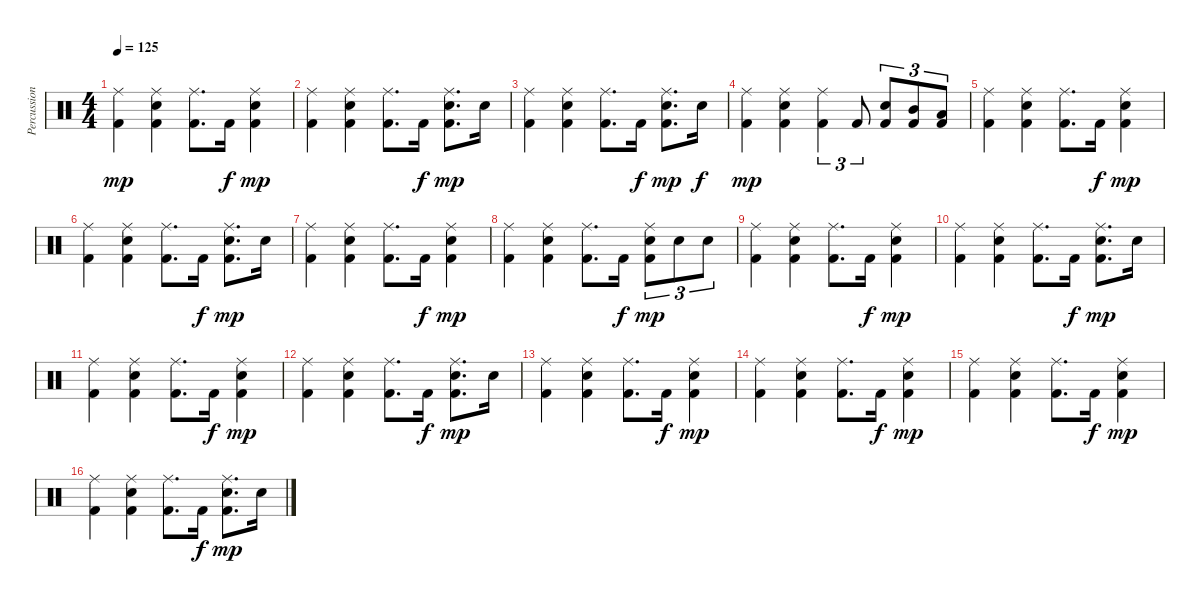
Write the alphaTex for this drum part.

\track ("Percussions" "Percussion") {instrument percussion}
\staff {score}
\articulation defaults
\ts (4 4)
\tempo 125
\clef neutral
\ks c
("Ride (middle)" "Kick (hit) 2").4{dy mp} ("Ride (middle)" "Electric Snare (hit)" "Kick (hit) 2").4 ("Ride (middle)" "Kick (hit) 2").8{d} "Kick (hit) 2".16{dy f} ("Ride (middle)" "Electric Snare (hit)" "Kick (hit) 2").4{dy mp} |
("Ride (middle)" "Kick (hit) 2").4 ("Ride (middle)" "Electric Snare (hit)" "Kick (hit) 2").4 ("Ride (middle)" "Kick (hit) 2").8{d} "Kick (hit) 2".16{dy f} ("Ride (middle)" "Electric Snare (hit)" "Kick (hit) 2").8{d dy mp} "Electric Snare (hit)".16 |
("Ride (middle)" "Kick (hit) 2").4 ("Ride (middle)" "Electric Snare (hit)" "Kick (hit) 2").4 ("Ride (middle)" "Kick (hit) 2").8{d} "Kick (hit) 2".16{dy f} ("Ride (middle)" "Electric Snare (hit)" "Kick (hit) 2").8{d dy mp} "Electric Snare (hit)".16{dy f} |
("Ride (middle)" "Kick (hit) 2").4{dy mp} ("Ride (middle)" "Electric Snare (hit)" "Kick (hit) 2").4 ("Ride (middle)" "Kick (hit) 2").4{tu (3 2)} "Kick (hit) 2".8{tu (3 2)} ("Electric Snare (hit)" "Kick (hit) 2").8{tu (3 2)} ("Mid Tom (hit)" "Kick (hit) 2").8{tu (3 2)} ("Low Tom (hit)" "Kick (hit) 2").8{tu (3 2)} |
("Ride (middle)" "Kick (hit) 2").4 ("Ride (middle)" "Electric Snare (hit)" "Kick (hit) 2").4 ("Ride (middle)" "Kick (hit) 2").8{d} "Kick (hit) 2".16{dy f} ("Ride (middle)" "Electric Snare (hit)" "Kick (hit) 2").4{dy mp} |
("Ride (middle)" "Kick (hit) 2").4 ("Ride (middle)" "Electric Snare (hit)" "Kick (hit) 2").4 ("Ride (middle)" "Kick (hit) 2").8{d} "Kick (hit) 2".16{dy f} ("Ride (middle)" "Electric Snare (hit)" "Kick (hit) 2").8{d dy mp} "Electric Snare (hit)".16 |
("Ride (middle)" "Kick (hit) 2").4 ("Ride (middle)" "Electric Snare (hit)" "Kick (hit) 2").4 ("Ride (middle)" "Kick (hit) 2").8{d} "Kick (hit) 2".16{dy f} ("Ride (middle)" "Electric Snare (hit)" "Kick (hit) 2").4{dy mp} |
("Ride (middle)" "Kick (hit) 2").4 ("Ride (middle)" "Electric Snare (hit)" "Kick (hit) 2").4 ("Ride (middle)" "Kick (hit) 2").8{d} "Kick (hit) 2".16{dy f} ("Ride (middle)" "Electric Snare (hit)" "Kick (hit) 2").8{tu (3 2) dy mp} "Electric Snare (hit)".8{tu (3 2)} "Electric Snare (hit)".8{tu (3 2)} |
("Ride (middle)" "Kick (hit) 2").4 ("Ride (middle)" "Electric Snare (hit)" "Kick (hit) 2").4 ("Ride (middle)" "Kick (hit) 2").8{d} "Kick (hit) 2".16{dy f} ("Ride (middle)" "Electric Snare (hit)" "Kick (hit) 2").4{dy mp} |
("Ride (middle)" "Kick (hit) 2").4 ("Ride (middle)" "Electric Snare (hit)" "Kick (hit) 2").4 ("Ride (middle)" "Kick (hit) 2").8{d} "Kick (hit) 2".16{dy f} ("Ride (middle)" "Electric Snare (hit)" "Kick (hit) 2").8{d dy mp} "Electric Snare (hit)".16 |
("Ride (middle)" "Kick (hit) 2").4 ("Ride (middle)" "Electric Snare (hit)" "Kick (hit) 2").4 ("Ride (middle)" "Kick (hit) 2").8{d} "Kick (hit) 2".16{dy f} ("Ride (middle)" "Electric Snare (hit)" "Kick (hit) 2").4{dy mp} |
("Ride (middle)" "Kick (hit) 2").4 ("Ride (middle)" "Electric Snare (hit)" "Kick (hit) 2").4 ("Ride (middle)" "Kick (hit) 2").8{d} "Kick (hit) 2".16{dy f} ("Ride (middle)" "Electric Snare (hit)" "Kick (hit) 2").8{d dy mp} "Electric Snare (hit)".16 |
("Ride (middle)" "Kick (hit) 2").4 ("Ride (middle)" "Electric Snare (hit)" "Kick (hit) 2").4 ("Ride (middle)" "Kick (hit) 2").8{d} "Kick (hit) 2".16{dy f} ("Ride (middle)" "Electric Snare (hit)" "Kick (hit) 2").4{dy mp} |
("Ride (middle)" "Kick (hit) 2").4 ("Ride (middle)" "Electric Snare (hit)" "Kick (hit) 2").4 ("Ride (middle)" "Kick (hit) 2").8{d} "Kick (hit) 2".16{dy f} ("Ride (middle)" "Electric Snare (hit)" "Kick (hit) 2").4{dy mp} |
("Ride (middle)" "Kick (hit) 2").4 ("Ride (middle)" "Electric Snare (hit)" "Kick (hit) 2").4 ("Ride (middle)" "Kick (hit) 2").8{d} "Kick (hit) 2".16{dy f} ("Ride (middle)" "Electric Snare (hit)" "Kick (hit) 2").4{dy mp} |
("Ride (middle)" "Kick (hit) 2").4 ("Ride (middle)" "Electric Snare (hit)" "Kick (hit) 2").4 ("Ride (middle)" "Kick (hit) 2").8{d} "Kick (hit) 2".16{dy f} ("Ride (middle)" "Electric Snare (hit)" "Kick (hit) 2").8{d dy mp} "Electric Snare (hit)".16
